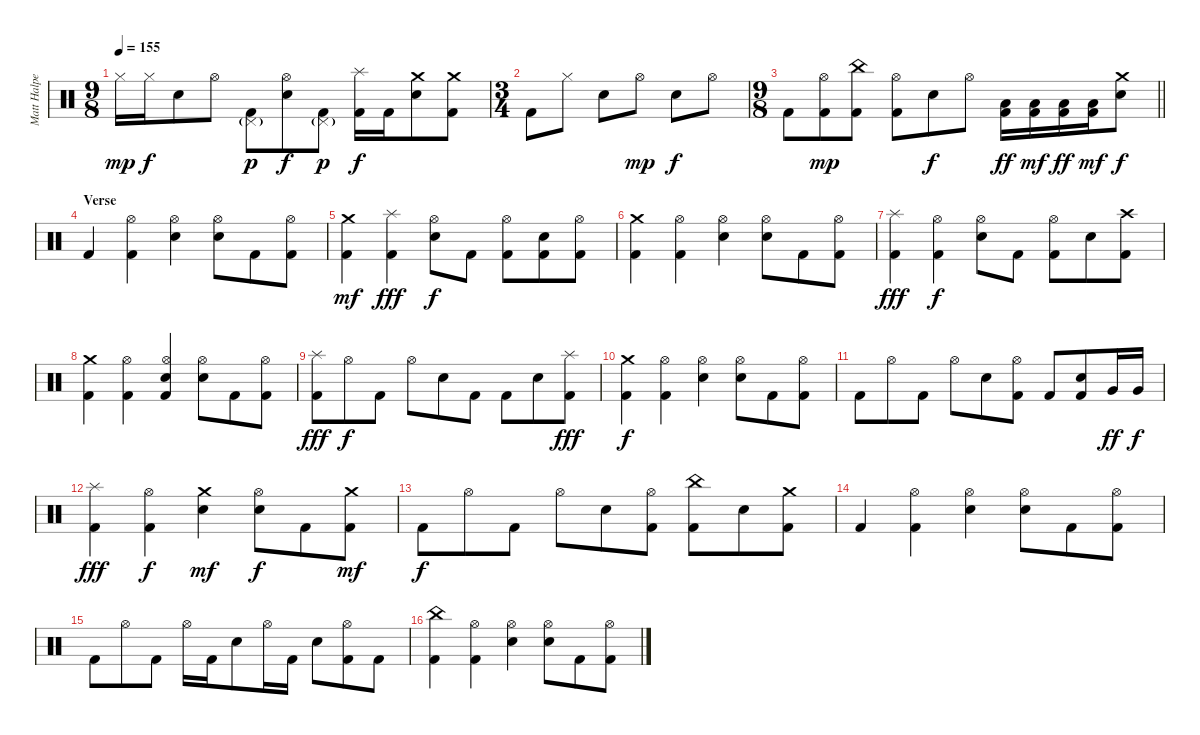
\track ("Matt Halpern - Drums" "Matt Halpe") {instrument percussion}
\staff {score}
\articulation defaults
\ts (9 8)
\tempo 155
\clef neutral
\ks c "Hi-Hat (closed)".16{dy mp} "Hi-Hat (closed)".16{dy f} "Electric Snare (hit)".8 "Hi-Hat (open)".8
("Pedal Hi-Hat (hit)"{g} "Kick (hit) 2").8{dy p} ("Hi-Hat (open)" "Electric Snare (hit)").8{dy f} ("Pedal Hi-Hat (hit)"{g} "Kick (hit) 2").8{dy p} ("Splash (hit)" "Kick (hit) 2").16{dy f} "Kick (hit) 2".16 ("Crash medium (hit)" "Electric Snare (hit)").8 ("Crash medium (hit)" "Kick (hit) 2").8 |
\ts (3 4)
"Kick (hit) 2".8 "Hi-Hat (closed)".8 "Electric Snare (hit)".8 "Hi-Hat (open)".8{dy mp} "Electric Snare (hit)".8{dy f} "Hi-Hat (open)".8 |
\ts (9 8)
\barLineRight lightlight "Kick (hit) 2".8
("Hi-Hat (open)" "Kick (hit) 2").8{dy mp} ("China (hit)" "Kick (hit) 2").8 ("Hi-Hat (open)" "Kick (hit) 2").8 "Electric Snare (hit)".8{dy f} "Hi-Hat (open)".8 ("Low Tom (hit)" "Kick (hit) 2").16{dy ff} ("Low Tom (hit)" "Kick (hit) 2").16{dy mf} ("Low Tom (hit)" "Kick (hit) 2").16{dy ff} ("Low Tom (hit)" "Kick (hit) 2").16{dy mf} ("Crash medium (hit)" "Electric Snare (hit)").8{dy f} |
\section ("" "Verse")
"Kick (hit) 2".4 ("Hi-Hat (open)" "Kick (hit) 2").4 ("Hi-Hat (open)" "Electric Snare (hit)").4 ("Hi-Hat (open)" "Electric Snare (hit)").8 "Kick (hit) 2".8 ("Hi-Hat (open)" "Kick (hit) 2").8 |
("Crash medium (hit)" "Kick (hit) 2").4{dy mf} ("Splash (hit)" "Kick (hit) 2").4{dy fff} ("Hi-Hat (open)" "Electric Snare (hit)").8{dy f} "Kick (hit) 2".8 ("Hi-Hat (open)" "Kick (hit) 2").8 ("Electric Snare (hit)" "Kick (hit) 2").8 ("Hi-Hat (open)" "Kick (hit) 2").8 |
("Crash medium (hit)" "Kick (hit) 2").4 ("Hi-Hat (open)" "Kick (hit) 2").4 ("Hi-Hat (open)" "Electric Snare (hit)").4 ("Hi-Hat (open)" "Electric Snare (hit)").8 "Kick (hit) 2".8 ("Hi-Hat (open)" "Kick (hit) 2").8 |
("Splash (hit)" "Kick (hit) 2").4{dy fff} ("Hi-Hat (open)" "Kick (hit) 2").4{dy f} ("Hi-Hat (open)" "Electric Snare (hit)").8 "Kick (hit) 2".8 ("Hi-Hat (open)" "Kick (hit) 2").8 "Electric Snare (hit)".8 ("Crash high (hit)" "Kick (hit) 2").8 |
("Crash medium (hit)" "Kick (hit) 2").4 ("Hi-Hat (open)" "Kick (hit) 2").4 ("Hi-Hat (open)" "Electric Snare (hit)" "Kick (hit) 2").4 ("Hi-Hat (open)" "Electric Snare (hit)").8 "Kick (hit) 2".8 ("Hi-Hat (open)" "Kick (hit) 2").8 |
("Splash (hit)" "Kick (hit) 2").8{dy fff} "Hi-Hat (open)".8{dy f} "Kick (hit) 2".8 "Hi-Hat (open)".8 "Electric Snare (hit)".8 "Kick (hit) 2".8 "Kick (hit) 2".8 "Electric Snare (hit)".8 ("Splash (hit)" "Kick (hit) 2").8{dy fff} |
("Crash medium (hit)" "Kick (hit) 2").4{dy f} ("Hi-Hat (open)" "Kick (hit) 2").4 ("Hi-Hat (open)" "Electric Snare (hit)").4 ("Hi-Hat (open)" "Electric Snare (hit)").8 "Kick (hit) 2".8 ("Hi-Hat (open)" "Kick (hit) 2").8 |
"Kick (hit) 2".8 "Hi-Hat (open)".8 "Kick (hit) 2".8 "Hi-Hat (open)".8 "Electric Snare (hit)".8 ("Hi-Hat (open)" "Kick (hit) 2").8 "Kick (hit) 2".8 ("Electric Snare (hit)" "Kick (hit) 2").8 "Very Low Tom (hit)".16{dy ff} "Very Low Tom (hit)".16{dy f} |
("Splash (hit)" "Kick (hit) 2").4{dy fff} ("Hi-Hat (open)" "Kick (hit) 2").4{dy f} ("Crash medium (hit)" "Electric Snare (hit)").4{dy mf} ("Hi-Hat (open)" "Electric Snare (hit)").8{dy f} "Kick (hit) 2".8 ("Crash medium (hit)" "Kick (hit) 2").8{dy mf} |
"Kick (hit) 2".8{dy f} "Hi-Hat (open)".8 "Kick (hit) 2".8 "Hi-Hat (open)".8 "Electric Snare (hit)".8 ("Hi-Hat (open)" "Kick (hit) 2").8 ("China (hit)" "Kick (hit) 2").8 "Electric Snare (hit)".8 ("Crash medium (hit)" "Kick (hit) 2").8 |
"Kick (hit) 2".4 ("Hi-Hat (open)" "Kick (hit) 2").4 ("Hi-Hat (open)" "Electric Snare (hit)").4 ("Hi-Hat (open)" "Electric Snare (hit)").8 "Kick (hit) 2".8 ("Hi-Hat (open)" "Kick (hit) 2").8 |
"Kick (hit) 2".8 "Hi-Hat (open)".8 "Kick (hit) 2".8 "Hi-Hat (open)".16 "Kick (hit) 2".16 "Electric Snare (hit)".8 "Hi-Hat (open)".16 "Kick (hit) 2".16 "Electric Snare (hit)".8 ("Hi-Hat (open)" "Kick (hit) 2").8 "Kick (hit) 2".8 |
("China (hit)" "Kick (hit) 2").4 ("Hi-Hat (open)" "Kick (hit) 2").4 ("Hi-Hat (open)" "Electric Snare (hit)").4 ("Hi-Hat (open)" "Electric Snare (hit)").8 "Kick (hit) 2".8 ("Hi-Hat (open)" "Kick (hit) 2").8
